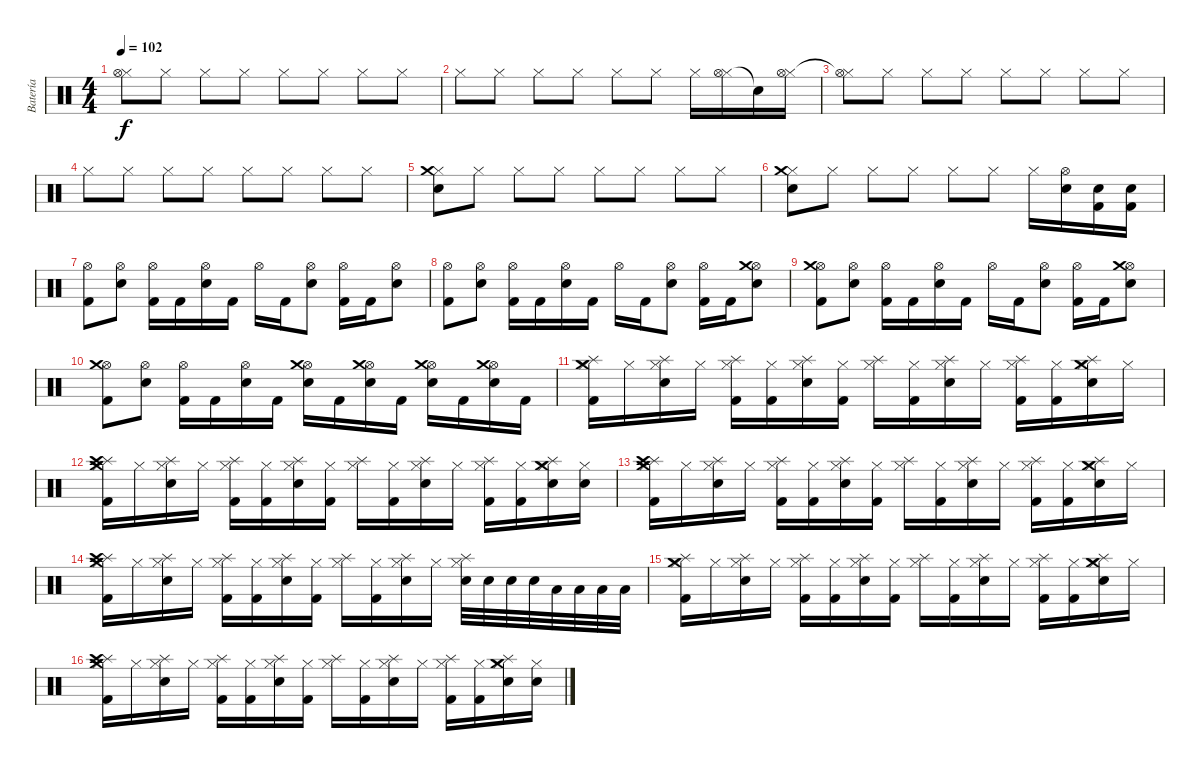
\track ("Batería" "Batería") {instrument percussion}
\staff {score}
\articulation defaults
\ts (4 4)
\tempo 102
\clef neutral
\ks c
("Hi-Hat (closed)" "Hi-Hat (open)").8{dy f} "Hi-Hat (closed)".8 "Hi-Hat (closed)".8 "Hi-Hat (closed)".8 "Hi-Hat (closed)".8 "Hi-Hat (closed)".8 "Hi-Hat (closed)".8 "Hi-Hat (closed)".8 |
"Hi-Hat (closed)".8 "Hi-Hat (closed)".8 "Hi-Hat (closed)".8 "Hi-Hat (closed)".8 "Hi-Hat (closed)".8 "Hi-Hat (closed)".8 "Hi-Hat (closed)".16 ("Hi-Hat (closed)" "Hi-Hat (open)").16 "Snare (hit)"{t}.16 ("Hi-Hat (closed)" "Hi-Hat (open)").16 |
("Hi-Hat (closed)" "Hi-Hat (open)"{t}).8 "Hi-Hat (closed)".8 "Hi-Hat (closed)".8 "Hi-Hat (closed)".8 "Hi-Hat (closed)".8 "Hi-Hat (closed)".8 "Hi-Hat (closed)".8 "Hi-Hat (closed)".8 |
"Hi-Hat (closed)".8 "Hi-Hat (closed)".8 "Hi-Hat (closed)".8 "Hi-Hat (closed)".8 "Hi-Hat (closed)".8 "Hi-Hat (closed)".8 "Hi-Hat (closed)".8 "Hi-Hat (closed)".8 |
("Hi-Hat (closed)" "Snare (hit) 2" "Crash medium (hit)").8 "Hi-Hat (closed)".8 "Hi-Hat (closed)".8 "Hi-Hat (closed)".8 "Hi-Hat (closed)".8 "Hi-Hat (closed)".8 "Hi-Hat (closed)".8 "Hi-Hat (closed)".8 |
("Hi-Hat (closed)" "Snare (hit) 2" "Crash medium (hit)").8 "Hi-Hat (closed)".8 "Hi-Hat (closed)".8 "Hi-Hat (closed)".8 "Hi-Hat (closed)".8 "Hi-Hat (closed)".8 "Hi-Hat (closed)".16 ("Hi-Hat (open)" "Snare (hit) 2").16 ("Snare (hit) 2" "Kick (hit) 2").16 ("Snare (hit) 2" "Kick (hit) 2").16 |
("Hi-Hat (open)" "Kick (hit) 2").8 ("Hi-Hat (open)" "Snare (hit) 2").8 ("Hi-Hat (open)" "Kick (hit) 2").16 "Kick (hit) 2".16 ("Hi-Hat (open)" "Snare (hit) 2").16 "Kick (hit) 2".16 "Hi-Hat (open)".16 "Kick (hit) 2".16 ("Hi-Hat (open)" "Snare (hit) 2").8 ("Hi-Hat (open)" "Kick (hit) 2").16 "Kick (hit) 2".16 ("Hi-Hat (open)" "Snare (hit) 2").8 |
("Hi-Hat (open)" "Kick (hit) 2").8 ("Hi-Hat (open)" "Snare (hit) 2").8 ("Hi-Hat (open)" "Kick (hit) 2").16 "Kick (hit) 2".16 ("Hi-Hat (open)" "Snare (hit) 2").16 "Kick (hit) 2".16 "Hi-Hat (open)".16 "Kick (hit) 2".16 ("Hi-Hat (open)" "Snare (hit) 2").8 ("Hi-Hat (open)" "Kick (hit) 2").16 "Kick (hit) 2".16 ("Hi-Hat (open)" "Snare (hit) 2" "Crash medium (hit)").8 |
("Hi-Hat (open)" "Kick (hit) 2" "Crash medium (hit)").8 ("Hi-Hat (open)" "Snare (hit) 2").8 ("Hi-Hat (open)" "Kick (hit) 2").16 "Kick (hit) 2".16 ("Hi-Hat (open)" "Snare (hit) 2").16 "Kick (hit) 2".16 "Hi-Hat (open)".16 "Kick (hit) 2".16 ("Hi-Hat (open)" "Snare (hit) 2").8 ("Hi-Hat (open)" "Kick (hit) 2").16 "Kick (hit) 2".16 ("Hi-Hat (open)" "Snare (hit) 2" "Crash medium (hit)").8 |
("Hi-Hat (open)" "Kick (hit) 2" "Crash medium (hit)").8 ("Hi-Hat (open)" "Snare (hit) 2").8 ("Hi-Hat (open)" "Kick (hit) 2").16 "Kick (hit) 2".16 ("Hi-Hat (open)" "Snare (hit) 2").16 "Kick (hit) 2".16 ("Hi-Hat (open)" "Crash medium (hit)" "Snare (hit) 2").16 "Kick (hit) 2".16 ("Hi-Hat (open)" "Crash medium (hit)" "Snare (hit) 2").16 "Kick (hit) 2".16 ("Hi-Hat (open)" "Crash medium (hit)" "Snare (hit) 2").16 "Kick (hit) 2".16 ("Hi-Hat (open)" "Crash medium (hit)" "Snare (hit) 2").16 "Kick (hit) 2".16 |
("Hi-Hat (closed)" "Splash (hit)" "Kick (hit) 2" "Crash medium (hit)").16 "Hi-Hat (closed)".16 ("Hi-Hat (closed)" "Splash (hit)" "Snare (hit) 2").16 "Hi-Hat (closed)".16 ("Hi-Hat (closed)" "Splash (hit)" "Kick (hit) 2").16 ("Hi-Hat (closed)" "Kick (hit) 2").16 ("Hi-Hat (closed)" "Splash (hit)" "Snare (hit) 2").16 ("Hi-Hat (closed)" "Kick (hit) 2").16 ("Hi-Hat (closed)" "Splash (hit)").16 ("Hi-Hat (closed)" "Kick (hit) 2").16 ("Hi-Hat (closed)" "Splash (hit)" "Snare (hit) 2").16 "Hi-Hat (closed)".16 ("Hi-Hat (closed)" "Splash (hit)" "Kick (hit) 2").16 ("Hi-Hat (closed)" "Kick (hit) 2").16 ("Hi-Hat (closed)" "Splash (hit)" "Snare (hit) 2" "Crash medium (hit)").16 "Hi-Hat (closed)".16 |
("Hi-Hat (closed)" "Splash (hit)" "Kick (hit) 2" "Crash high (hit)" "Crash medium (hit)").16 "Hi-Hat (closed)".16 ("Hi-Hat (closed)" "Splash (hit)" "Snare (hit) 2").16 "Hi-Hat (closed)".16 ("Hi-Hat (closed)" "Splash (hit)" "Kick (hit) 2").16 ("Hi-Hat (closed)" "Kick (hit) 2").16 ("Hi-Hat (closed)" "Splash (hit)" "Snare (hit) 2").16 ("Hi-Hat (closed)" "Kick (hit) 2").16 ("Hi-Hat (closed)" "Splash (hit)").16 ("Hi-Hat (closed)" "Kick (hit) 2").16 ("Hi-Hat (closed)" "Splash (hit)" "Snare (hit) 2").16 "Hi-Hat (closed)".16 ("Hi-Hat (closed)" "Splash (hit)" "Kick (hit) 2").16 ("Hi-Hat (closed)" "Kick (hit) 2").16 ("Hi-Hat (closed)" "Splash (hit)" "Snare (hit) 2" "Crash medium (hit)").16 ("Hi-Hat (closed)" "Snare (hit) 2").16 |
("Hi-Hat (closed)" "Splash (hit)" "Kick (hit) 2" "Crash high (hit)" "Crash medium (hit)").16 "Hi-Hat (closed)".16 ("Hi-Hat (closed)" "Splash (hit)" "Snare (hit) 2").16 "Hi-Hat (closed)".16 ("Hi-Hat (closed)" "Splash (hit)" "Kick (hit) 2").16 ("Hi-Hat (closed)" "Kick (hit) 2").16 ("Hi-Hat (closed)" "Splash (hit)" "Snare (hit) 2").16 ("Hi-Hat (closed)" "Kick (hit) 2").16 ("Hi-Hat (closed)" "Splash (hit)").16 ("Hi-Hat (closed)" "Kick (hit) 2").16 ("Hi-Hat (closed)" "Splash (hit)" "Snare (hit) 2").16 "Hi-Hat (closed)".16 ("Hi-Hat (closed)" "Splash (hit)" "Kick (hit) 2").16 ("Hi-Hat (closed)" "Kick (hit) 2").16 ("Hi-Hat (closed)" "Splash (hit)" "Snare (hit) 2" "Crash medium (hit)").16 "Hi-Hat (closed)".16 |
("Hi-Hat (closed)" "Splash (hit)" "Kick (hit) 2" "Crash high (hit)" "Crash medium (hit)").16 "Hi-Hat (closed)".16 ("Hi-Hat (closed)" "Splash (hit)" "Snare (hit) 2").16 "Hi-Hat (closed)".16 ("Hi-Hat (closed)" "Splash (hit)" "Kick (hit) 2").16 ("Hi-Hat (closed)" "Kick (hit) 2").16 ("Hi-Hat (closed)" "Splash (hit)" "Snare (hit) 2").16 ("Hi-Hat (closed)" "Kick (hit) 2").16 ("Hi-Hat (closed)" "Splash (hit)").16 ("Hi-Hat (closed)" "Kick (hit) 2").16 ("Hi-Hat (closed)" "Splash (hit)" "Snare (hit) 2").16 "Hi-Hat (closed)".16 ("Hi-Hat (closed)" "Splash (hit)" "Snare (hit) 2").32 "Snare (hit) 2".32 "Electric Snare (hit)".32 "Electric Snare (hit)".32 "Low Tom (hit)".32 "Low Tom (hit)".32 "Low Tom (hit)".32 "Low Tom (hit)".32 |
("Hi-Hat (closed)" "Splash (hit)" "Kick (hit) 2" "Crash medium (hit)").16 "Hi-Hat (closed)".16 ("Hi-Hat (closed)" "Splash (hit)" "Snare (hit) 2").16 "Hi-Hat (closed)".16 ("Hi-Hat (closed)" "Splash (hit)" "Kick (hit) 2").16 ("Hi-Hat (closed)" "Kick (hit) 2").16 ("Hi-Hat (closed)" "Splash (hit)" "Snare (hit) 2").16 ("Hi-Hat (closed)" "Kick (hit) 2").16 ("Hi-Hat (closed)" "Splash (hit)").16 ("Hi-Hat (closed)" "Kick (hit) 2").16 ("Hi-Hat (closed)" "Splash (hit)" "Snare (hit) 2").16 "Hi-Hat (closed)".16 ("Hi-Hat (closed)" "Splash (hit)" "Kick (hit) 2").16 ("Hi-Hat (closed)" "Kick (hit) 2").16 ("Hi-Hat (closed)" "Splash (hit)" "Snare (hit) 2" "Crash medium (hit)").16 "Hi-Hat (closed)".16 |
("Hi-Hat (closed)" "Splash (hit)" "Kick (hit) 2" "Crash high (hit)" "Crash medium (hit)").16 "Hi-Hat (closed)".16 ("Hi-Hat (closed)" "Splash (hit)" "Snare (hit) 2").16 "Hi-Hat (closed)".16 ("Hi-Hat (closed)" "Splash (hit)" "Kick (hit) 2").16 ("Hi-Hat (closed)" "Kick (hit) 2").16 ("Hi-Hat (closed)" "Splash (hit)" "Snare (hit) 2").16 ("Hi-Hat (closed)" "Kick (hit) 2").16 ("Hi-Hat (closed)" "Splash (hit)").16 ("Hi-Hat (closed)" "Kick (hit) 2").16 ("Hi-Hat (closed)" "Splash (hit)" "Snare (hit) 2").16 "Hi-Hat (closed)".16 ("Hi-Hat (closed)" "Splash (hit)" "Kick (hit) 2").16 ("Hi-Hat (closed)" "Kick (hit) 2").16 ("Hi-Hat (closed)" "Splash (hit)" "Snare (hit) 2" "Crash medium (hit)").16 ("Hi-Hat (closed)" "Snare (hit) 2").16
